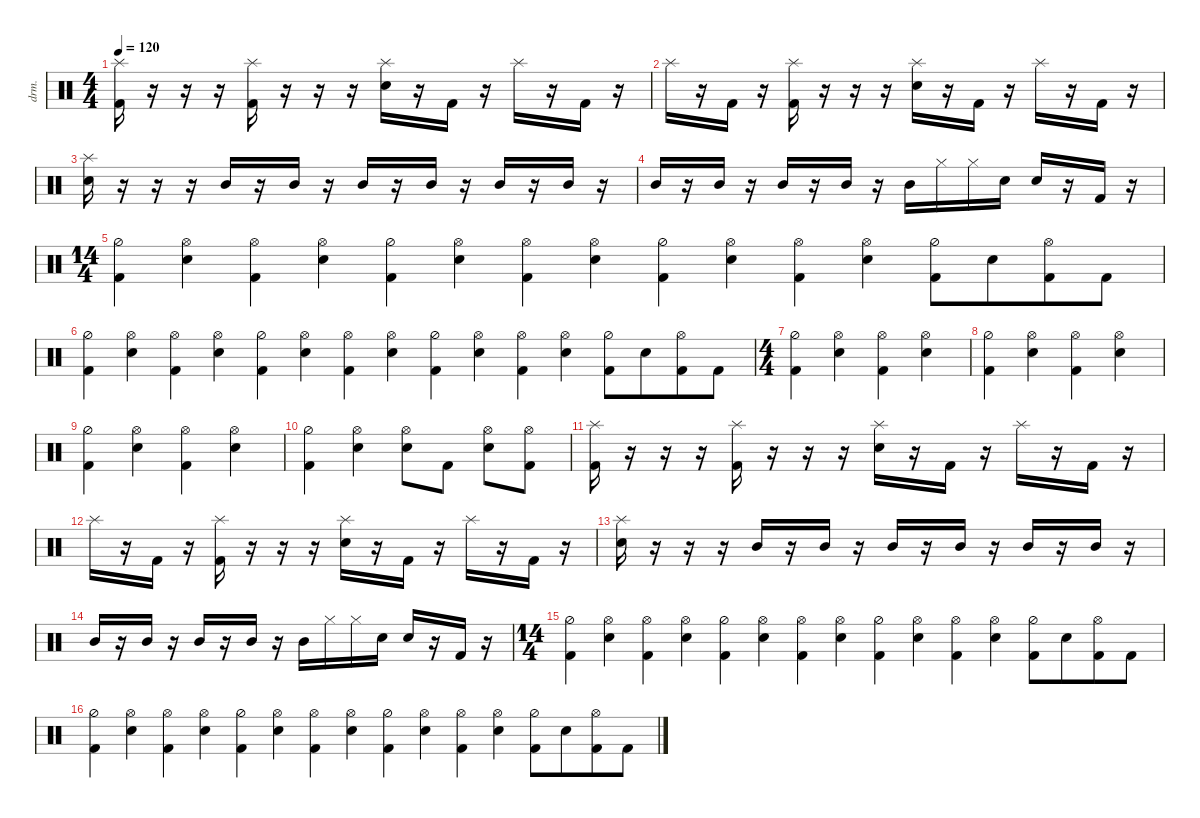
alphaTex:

\defaultSystemsLayout 4
\hideDynamics
\bracketExtendMode nobrackets
\otherSystemsTrackNameOrientation horizontal
\track ("Drumkit" "drm.") {instrument percussion}
\staff {score}
\articulation defaults
\ts (4 4)
\tempo 120
\clef neutral
\ks c
("Kick (hit) 2" "Splash (hit)").16{dy mf beam Down} r.16{beam Down} r.16{beam Down} r.16{beam Down} ("Kick (hit) 2" "Splash (hit)").16{beam Down} r.16{beam Down} r.16{beam Down} r.16{beam Down} ("Snare (hit) 2" "Splash (hit)").16{beam Down} r.16{beam Down} "Kick (hit) 2".16{beam Down} r.16{beam Down} "Splash (hit)".16{beam Down} r.16{beam Down} "Kick (hit) 2".16{beam Down} r.16{beam Down} |
"Splash (hit)".16{beam Down} r.16{beam Down} "Kick (hit) 2".16{beam Down} r.16{beam Down} ("Kick (hit) 2" "Splash (hit)").16{beam Down} r.16{beam Down} r.16{beam Down} r.16{beam Down} ("Snare (hit) 2" "Splash (hit)").16{beam Down} r.16{beam Down} "Kick (hit) 2".16{beam Down} r.16{beam Down} "Splash (hit)".16{beam Down} r.16{beam Down} "Kick (hit) 2".16{beam Down} r.16{beam Down} |
("Snare (hit) 2" "Splash (hit)").16{beam Down} r.16{beam Down} r.16{beam Down} r.16{beam Down} "Mid Tom (hit)".16{beam Up} r.16{beam Up} "Mid Tom (hit)".16{beam Up} r.16{beam Up} "Mid Tom (hit)".16{beam Up} r.16{beam Up} "Mid Tom (hit)".16{beam Up} r.16{beam Up} "Mid Tom (hit)".16{beam Up} r.16{beam Up} "Mid Tom (hit)".16{beam Up} r.16{beam Up} |
"Mid Tom (hit)".16{beam Up} r.16{beam Up} "Mid Tom (hit)".16{beam Up} r.16{beam Up} "Mid Tom (hit)".16{beam Up} r.16{beam Up} "Mid Tom (hit)".16{beam Up} r.16{beam Up} "Mid Tom (hit)".16{beam Down} "Hi-Hat (closed)".16{beam Down} "Hi-Hat (closed)".16{beam Down} "Snare (hit) 2".16{beam Down} "Snare (hit) 2".16{beam Up} r.16{beam Up} "Kick (hit) 2".16{beam Up} r.16{beam Up} |
\ts (14 4)
\beaming (8 4 4 4 4 4 4 4)
("Kick (hit) 2" "Hi-Hat (half)").4{beam Down} ("Snare (hit) 2" "Hi-Hat (open)").4{beam Down} ("Kick (hit) 2" "Hi-Hat (open)").4{beam Down} ("Snare (hit) 2" "Hi-Hat (open)").4{beam Down} ("Kick (hit) 2" "Hi-Hat (half)").4{beam Down} ("Snare (hit) 2" "Hi-Hat (open)").4{beam Down} ("Kick (hit) 2" "Hi-Hat (open)").4{beam Down} ("Snare (hit) 2" "Hi-Hat (open)").4{beam Down} ("Kick (hit) 2" "Hi-Hat (half)").4{beam Down} ("Snare (hit) 2" "Hi-Hat (open)").4{beam Down} ("Kick (hit) 2" "Hi-Hat (open)").4{beam Down} ("Snare (hit) 2" "Hi-Hat (open)").4{beam Down} ("Kick (hit) 2" "Hi-Hat (half)").8{beam Down} "Snare (hit) 2".8{beam Down} ("Kick (hit) 2" "Hi-Hat (open)").8{beam Down} "Kick (hit) 2".8{beam Down} |
("Kick (hit) 2" "Hi-Hat (half)").4{beam Down} ("Snare (hit) 2" "Hi-Hat (open)").4{beam Down} ("Kick (hit) 2" "Hi-Hat (open)").4{beam Down} ("Snare (hit) 2" "Hi-Hat (open)").4{beam Down} ("Kick (hit) 2" "Hi-Hat (half)").4{beam Down} ("Snare (hit) 2" "Hi-Hat (open)").4{beam Down} ("Kick (hit) 2" "Hi-Hat (open)").4{beam Down} ("Snare (hit) 2" "Hi-Hat (open)").4{beam Down} ("Kick (hit) 2" "Hi-Hat (half)").4{beam Down} ("Snare (hit) 2" "Hi-Hat (open)").4{beam Down} ("Kick (hit) 2" "Hi-Hat (open)").4{beam Down} ("Snare (hit) 2" "Hi-Hat (open)").4{beam Down} ("Kick (hit) 2" "Hi-Hat (half)").8{beam Down} "Snare (hit) 2".8{beam Down} ("Kick (hit) 2" "Hi-Hat (open)").8{beam Down} "Kick (hit) 2".8{beam Down} |
\ts (4 4)
\beaming (8 2 2 2 2)
("Kick (hit) 2" "Hi-Hat (half)").4{beam Down} ("Snare (hit) 2" "Hi-Hat (open)").4{beam Down} ("Kick (hit) 2" "Hi-Hat (open)").4{beam Down} ("Snare (hit) 2" "Hi-Hat (open)").4{beam Down} |
("Kick (hit) 2" "Hi-Hat (half)").4{beam Down} ("Snare (hit) 2" "Hi-Hat (open)").4{beam Down} ("Kick (hit) 2" "Hi-Hat (open)").4{beam Down} ("Snare (hit) 2" "Hi-Hat (open)").4{beam Down} |
("Kick (hit) 2" "Hi-Hat (half)").4{beam Down} ("Snare (hit) 2" "Hi-Hat (open)").4{beam Down} ("Kick (hit) 2" "Hi-Hat (open)").4{beam Down} ("Snare (hit) 2" "Hi-Hat (open)").4{beam Down} |
("Hi-Hat (half)" "Kick (hit) 2").4{beam Down} ("Hi-Hat (open)" "Snare (hit) 2").4{beam Down} ("Hi-Hat (open)" "Snare (hit) 2").8{beam Down} "Kick (hit) 2".8{beam Down} ("Snare (hit) 2" "Hi-Hat (open)").8{beam Down} ("Hi-Hat (open)" "Kick (hit) 2").8{beam Down} |
("Kick (hit) 2" "Splash (hit)").16{beam Down} r.16{beam Down} r.16{beam Down} r.16{beam Down} ("Kick (hit) 2" "Splash (hit)").16{beam Down} r.16{beam Down} r.16{beam Down} r.16{beam Down} ("Snare (hit) 2" "Splash (hit)").16{beam Down} r.16{beam Down} "Kick (hit) 2".16{beam Down} r.16{beam Down} "Splash (hit)".16{beam Down} r.16{beam Down} "Kick (hit) 2".16{beam Down} r.16{beam Down} |
"Splash (hit)".16{beam Down} r.16{beam Down} "Kick (hit) 2".16{beam Down} r.16{beam Down} ("Kick (hit) 2" "Splash (hit)").16{beam Down} r.16{beam Down} r.16{beam Down} r.16{beam Down} ("Snare (hit) 2" "Splash (hit)").16{beam Down} r.16{beam Down} "Kick (hit) 2".16{beam Down} r.16{beam Down} "Splash (hit)".16{beam Down} r.16{beam Down} "Kick (hit) 2".16{beam Down} r.16{beam Down} |
("Snare (hit) 2" "Splash (hit)").16{beam Down} r.16{beam Down} r.16{beam Down} r.16{beam Down} "Mid Tom (hit)".16{beam Up} r.16{beam Up} "Mid Tom (hit)".16{beam Up} r.16{beam Up} "Mid Tom (hit)".16{beam Up} r.16{beam Up} "Mid Tom (hit)".16{beam Up} r.16{beam Up} "Mid Tom (hit)".16{beam Up} r.16{beam Up} "Mid Tom (hit)".16{beam Up} r.16{beam Up} |
"Mid Tom (hit)".16{beam Up} r.16{beam Up} "Mid Tom (hit)".16{beam Up} r.16{beam Up} "Mid Tom (hit)".16{beam Up} r.16{beam Up} "Mid Tom (hit)".16{beam Up} r.16{beam Up} "Mid Tom (hit)".16{beam Down} "Hi-Hat (closed)".16{beam Down} "Hi-Hat (closed)".16{beam Down} "Snare (hit) 2".16{beam Down} "Snare (hit) 2".16{beam Up} r.16{beam Up} "Kick (hit) 2".16{beam Up} r.16{beam Up} |
\ts (14 4)
\beaming (8 4 4 4 4 4 4 4)
("Kick (hit) 2" "Hi-Hat (half)").4{beam Down} ("Snare (hit) 2" "Hi-Hat (open)").4{beam Down} ("Kick (hit) 2" "Hi-Hat (open)").4{beam Down} ("Snare (hit) 2" "Hi-Hat (open)").4{beam Down} ("Kick (hit) 2" "Hi-Hat (half)").4{beam Down} ("Snare (hit) 2" "Hi-Hat (open)").4{beam Down} ("Kick (hit) 2" "Hi-Hat (open)").4{beam Down} ("Snare (hit) 2" "Hi-Hat (open)").4{beam Down} ("Kick (hit) 2" "Hi-Hat (half)").4{beam Down} ("Snare (hit) 2" "Hi-Hat (open)").4{beam Down} ("Kick (hit) 2" "Hi-Hat (open)").4{beam Down} ("Snare (hit) 2" "Hi-Hat (open)").4{beam Down} ("Kick (hit) 2" "Hi-Hat (half)").8{beam Down} "Snare (hit) 2".8{beam Down} ("Kick (hit) 2" "Hi-Hat (open)").8{beam Down} "Kick (hit) 2".8{beam Down} |
("Kick (hit) 2" "Hi-Hat (half)").4{beam Down} ("Snare (hit) 2" "Hi-Hat (open)").4{beam Down} ("Kick (hit) 2" "Hi-Hat (open)").4{beam Down} ("Snare (hit) 2" "Hi-Hat (open)").4{beam Down} ("Kick (hit) 2" "Hi-Hat (half)").4{beam Down} ("Snare (hit) 2" "Hi-Hat (open)").4{beam Down} ("Kick (hit) 2" "Hi-Hat (open)").4{beam Down} ("Snare (hit) 2" "Hi-Hat (open)").4{beam Down} ("Kick (hit) 2" "Hi-Hat (half)").4{beam Down} ("Snare (hit) 2" "Hi-Hat (open)").4{beam Down} ("Kick (hit) 2" "Hi-Hat (open)").4{beam Down} ("Snare (hit) 2" "Hi-Hat (open)").4{beam Down} ("Kick (hit) 2" "Hi-Hat (half)").8{beam Down} "Snare (hit) 2".8{beam Down} ("Kick (hit) 2" "Hi-Hat (open)").8{beam Down} "Kick (hit) 2".8{beam Down}
